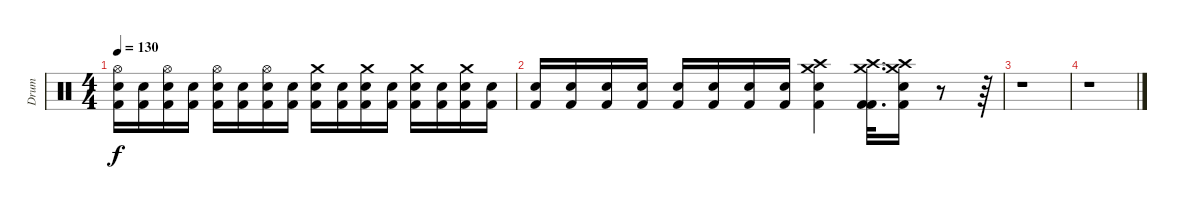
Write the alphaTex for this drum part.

\track ("Drum" "Drum") {instrument percussion}
\staff {score}
\articulation defaults
\ts (4 4)
\tempo 130
\clef neutral
\ks c
("Hi-Hat (open)" "Electric Snare (hit)" "Kick (hit) 2").16{dy f} ("Electric Snare (hit)" "Kick (hit) 2").16 ("Hi-Hat (open)" "Electric Snare (hit)" "Kick (hit) 2").16 ("Electric Snare (hit)" "Kick (hit) 2").16 ("Hi-Hat (open)" "Electric Snare (hit)" "Kick (hit) 2").16 ("Electric Snare (hit)" "Kick (hit) 2").16 ("Hi-Hat (open)" "Electric Snare (hit)" "Kick (hit) 2").16 ("Electric Snare (hit)" "Kick (hit) 2").16 ("Crash medium (hit)" "Electric Snare (hit)" "Kick (hit) 2").16 ("Electric Snare (hit)" "Kick (hit) 2").16 ("Crash medium (hit)" "Electric Snare (hit)" "Kick (hit) 2").16 ("Electric Snare (hit)" "Kick (hit) 2").16 ("Crash medium (hit)" "Electric Snare (hit)" "Kick (hit) 2").16 ("Electric Snare (hit)" "Kick (hit) 2").16 ("Crash medium (hit)" "Electric Snare (hit)" "Kick (hit) 2").16 ("Electric Snare (hit)" "Kick (hit) 2").16 |
("Snare (hit) 2" "Kick (hit) 2").16 ("Electric Snare (hit)" "Kick (hit) 2").16 ("Snare (hit) 2" "Kick (hit) 2").16 ("Electric Snare (hit)" "Kick (hit) 2").16 ("Snare (hit) 2" "Kick (hit) 2").16 ("Electric Snare (hit)" "Kick (hit) 2").16 ("Snare (hit) 2" "Kick (hit) 2").16 ("Electric Snare (hit)" "Kick (hit) 2").16 ("Crash high (hit)" "Crash medium (hit)" "Snare (hit) 2" "Kick (hit) 2").4 ("Crash high (hit)" "Crash medium (hit)" "Kick (hit) 2" "Kick (hit) 2").32{d} ("Crash high (hit)" "Crash medium (hit)" "Electric Snare (hit)" "Kick (hit) 2").16 r.8 r.64 |
r.1 |
r.1
